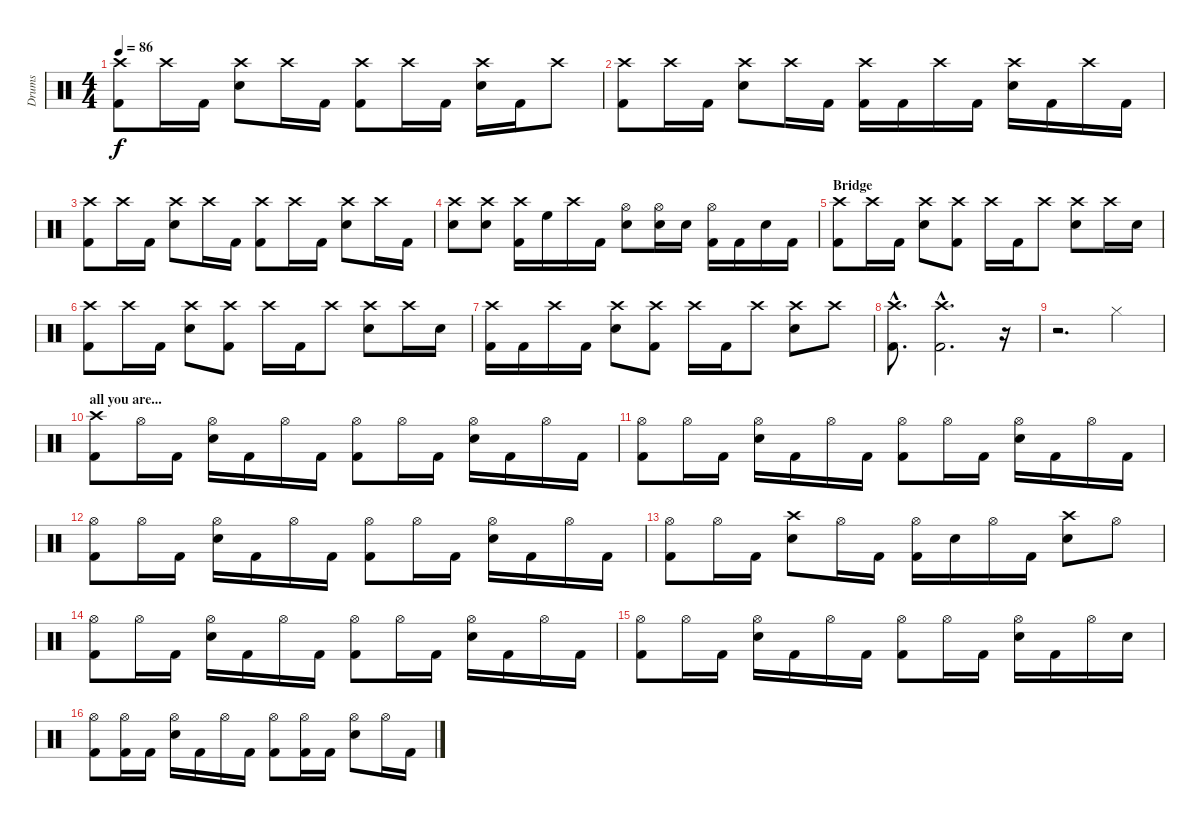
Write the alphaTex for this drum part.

\track ("Drums" "Drums") {instrument percussion}
\staff {score}
\articulation defaults
\ts (4 4)
\tempo 86
\clef neutral
\ks c
("Crash high (hit)" "Kick (hit) 2").8{dy f} "Crash high (hit)".16 "Kick (hit) 2".16 ("Crash high (hit)" "Electric Snare (hit)").8 "Crash high (hit)".16 "Kick (hit) 2".16 ("Crash high (hit)" "Kick (hit) 2").8 "Crash high (hit)".16 "Kick (hit) 2".16 ("Crash high (hit)" "Electric Snare (hit)").16 "Kick (hit) 2".16 "Crash high (hit)".8 |
("Crash high (hit)" "Kick (hit) 2").8 "Crash high (hit)".16 "Kick (hit) 2".16 ("Crash high (hit)" "Electric Snare (hit)").8 "Crash high (hit)".16 "Kick (hit) 2".16 ("Crash high (hit)" "Kick (hit) 2").16 "Kick (hit) 2".16 "Crash high (hit)".16 "Kick (hit) 2".16 ("Crash high (hit)" "Electric Snare (hit)").16 "Kick (hit) 2".16 "Crash high (hit)".16 "Kick (hit) 2".16 |
("Crash high (hit)" "Kick (hit) 2").8 "Crash high (hit)".16 "Kick (hit) 2".16 ("Crash high (hit)" "Electric Snare (hit)").8 "Crash high (hit)".16 "Kick (hit) 2".16 ("Crash high (hit)" "Kick (hit) 2").8 "Crash high (hit)".16 "Kick (hit) 2".16 ("Crash high (hit)" "Electric Snare (hit)").8 "Crash high (hit)".16 "Kick (hit) 2".16 |
("Crash high (hit)" "Electric Snare (hit)").8 ("Crash high (hit)" "Electric Snare (hit)").8 ("Crash high (hit)" "Kick (hit) 2").16 "High Floor Tom (hit)".16 "Crash high (hit)".16 "Kick (hit) 2".16 ("Hi-Hat (open)" "Electric Snare (hit)").8 ("Hi-Hat (open)" "Electric Snare (hit)").16 "Electric Snare (hit)".16 ("Hi-Hat (open)" "Kick (hit) 2").16 "Kick (hit) 2".16 "Electric Snare (hit)".16 "Kick (hit) 2".16 |
\section ("" "Bridge")
("Crash high (hit)" "Kick (hit) 2").8 "Crash high (hit)".16 "Kick (hit) 2".16 ("Crash high (hit)" "Electric Snare (hit)").8 ("Crash high (hit)" "Kick (hit) 2").8 "Crash high (hit)".16 "Kick (hit) 2".16 "Crash high (hit)".8 ("Crash high (hit)" "Electric Snare (hit)").8 "Crash high (hit)".16 "Electric Snare (hit)".16 |
("Crash high (hit)" "Kick (hit) 2").8 "Crash high (hit)".16 "Kick (hit) 2".16 ("Crash high (hit)" "Electric Snare (hit)").8 ("Crash high (hit)" "Kick (hit) 2").8 "Crash high (hit)".16 "Kick (hit) 2".16 "Crash high (hit)".8 ("Crash high (hit)" "Electric Snare (hit)").8 "Crash high (hit)".16 "Electric Snare (hit)".16 |
("Crash high (hit)" "Kick (hit) 2").16 "Kick (hit) 2".16 "Crash high (hit)".16 "Kick (hit) 2".16 ("Crash high (hit)" "Electric Snare (hit)").8 ("Crash high (hit)" "Kick (hit) 2").8 "Crash high (hit)".16 "Kick (hit) 2".16 "Crash high (hit)".8 ("Crash high (hit)" "Electric Snare (hit)").8 "Crash high (hit)".8 |
("Crash high (hit)"{hac} "Kick (hit) 2"{hac}).8{d} ("Crash high (hit)"{hac} "Kick (hit) 2"{hac}).2{d} r.16 |
r.2{d} "Hi-Hat (closed)".4 |
\section ("" "all you are...")
("Crash high (hit)" "Kick (hit) 2").8 "Hi-Hat (open)".16 "Kick (hit) 2".16 ("Hi-Hat (open)" "Electric Snare (hit)").16 "Kick (hit) 2".16 "Hi-Hat (open)".16 "Kick (hit) 2".16 ("Hi-Hat (open)" "Kick (hit) 2").8 "Hi-Hat (open)".16 "Kick (hit) 2".16 ("Hi-Hat (open)" "Electric Snare (hit)").16 "Kick (hit) 2".16 "Hi-Hat (open)".16 "Kick (hit) 2".16 |
("Hi-Hat (open)" "Kick (hit) 2").8 "Hi-Hat (open)".16 "Kick (hit) 2".16 ("Hi-Hat (open)" "Electric Snare (hit)").16 "Kick (hit) 2".16 "Hi-Hat (open)".16 "Kick (hit) 2".16 ("Hi-Hat (open)" "Kick (hit) 2").8 "Hi-Hat (open)".16 "Kick (hit) 2".16 ("Hi-Hat (open)" "Electric Snare (hit)").16 "Kick (hit) 2".16 "Hi-Hat (open)".16 "Kick (hit) 2".16 |
("Hi-Hat (open)" "Kick (hit) 2").8 "Hi-Hat (open)".16 "Kick (hit) 2".16 ("Hi-Hat (open)" "Electric Snare (hit)").16 "Kick (hit) 2".16 "Hi-Hat (open)".16 "Kick (hit) 2".16 ("Hi-Hat (open)" "Kick (hit) 2").8 "Hi-Hat (open)".16 "Kick (hit) 2".16 ("Hi-Hat (open)" "Electric Snare (hit)").16 "Kick (hit) 2".16 "Hi-Hat (open)".16 "Kick (hit) 2".16 |
("Hi-Hat (open)" "Kick (hit) 2").8 "Hi-Hat (open)".16 "Kick (hit) 2".16 ("Crash high (hit)" "Electric Snare (hit)").8 "Hi-Hat (open)".16 "Kick (hit) 2".16 ("Hi-Hat (open)" "Kick (hit) 2").16 "Electric Snare (hit)".16 "Hi-Hat (open)".16 "Kick (hit) 2".16 ("Crash high (hit)" "Electric Snare (hit)").8 "Hi-Hat (open)".8 |
("Hi-Hat (open)" "Kick (hit) 2").8 "Hi-Hat (open)".16 "Kick (hit) 2".16 ("Hi-Hat (open)" "Electric Snare (hit)").16 "Kick (hit) 2".16 "Hi-Hat (open)".16 "Kick (hit) 2".16 ("Hi-Hat (open)" "Kick (hit) 2").8 "Hi-Hat (open)".16 "Kick (hit) 2".16 ("Hi-Hat (open)" "Electric Snare (hit)").16 "Kick (hit) 2".16 "Hi-Hat (open)".16 "Kick (hit) 2".16 |
("Hi-Hat (open)" "Kick (hit) 2").8 "Hi-Hat (open)".16 "Kick (hit) 2".16 ("Hi-Hat (open)" "Electric Snare (hit)").16 "Kick (hit) 2".16 "Hi-Hat (open)".16 "Kick (hit) 2".16 ("Hi-Hat (open)" "Kick (hit) 2").8 "Hi-Hat (open)".16 "Kick (hit) 2".16 ("Hi-Hat (open)" "Electric Snare (hit)").16 "Kick (hit) 2".16 "Hi-Hat (open)".16 "Electric Snare (hit)".16 |
("Hi-Hat (open)" "Kick (hit) 2").8 ("Hi-Hat (open)" "Kick (hit) 2").16 "Kick (hit) 2".16 ("Hi-Hat (open)" "Electric Snare (hit)").16 "Kick (hit) 2".16 "Hi-Hat (open)".16 "Kick (hit) 2".16 ("Hi-Hat (open)" "Kick (hit) 2").8 ("Hi-Hat (open)" "Kick (hit) 2").16 "Kick (hit) 2".16 ("Hi-Hat (open)" "Electric Snare (hit)").8 "Hi-Hat (open)".16 "Kick (hit) 2".16
